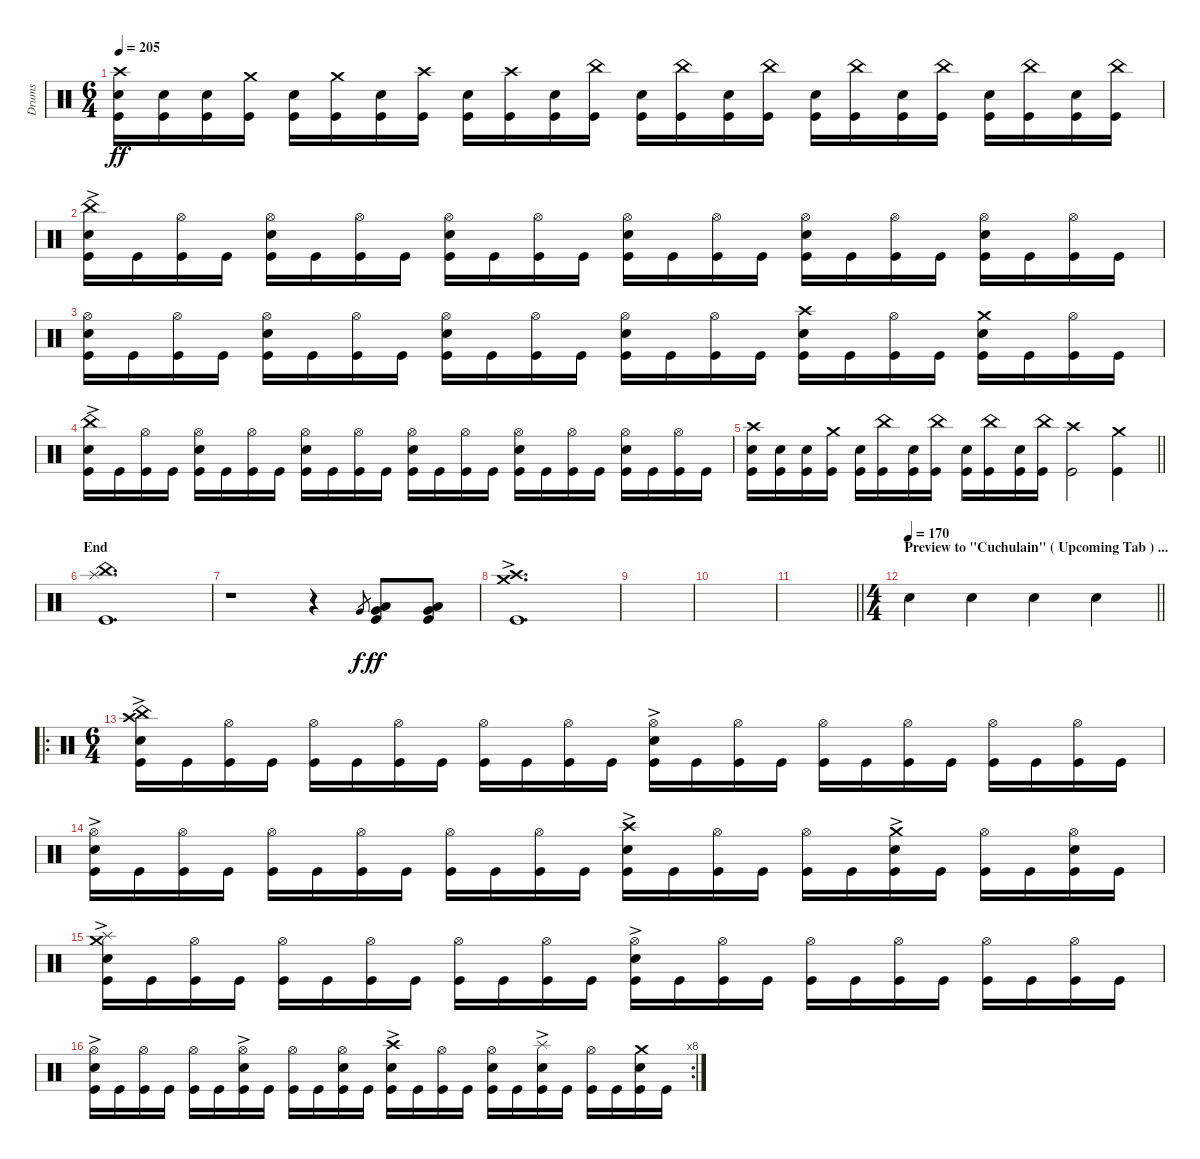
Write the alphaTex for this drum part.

\track ("Drums" "Drums") {instrument percussion}
\staff {score}
\articulation defaults
\ts (6 4)
\tempo 205
\clef neutral
\ks c
("Crash high (hit)" "Electric Snare (hit)" "Kick (hit)").16{dy ff} ("Electric Snare (hit)" "Kick (hit)").16 ("Electric Snare (hit)" "Kick (hit)").16 ("Crash medium (hit)" "Kick (hit)").16 ("Electric Snare (hit)" "Kick (hit)").16 ("Crash medium (hit)" "Kick (hit)").16 ("Electric Snare (hit)" "Kick (hit)").16 ("Crash high (hit)" "Kick (hit)").16 ("Electric Snare (hit)" "Kick (hit)").16 ("Crash high (hit)" "Kick (hit)").16 ("Electric Snare (hit)" "Kick (hit)").16 ("China (hit)" "Kick (hit)").16 ("Electric Snare (hit)" "Kick (hit)").16 ("China (hit)" "Kick (hit)").16 ("Electric Snare (hit)" "Kick (hit)").16 ("China (hit)" "Kick (hit)").16 ("Electric Snare (hit)" "Kick (hit)").16 ("China (hit)" "Kick (hit)").16 ("Electric Snare (hit)" "Kick (hit)").16 ("China (hit)" "Kick (hit)").16 ("Electric Snare (hit)" "Kick (hit)").16 ("China (hit)" "Kick (hit)").16 ("Electric Snare (hit)" "Kick (hit)").16 ("China (hit)" "Kick (hit)").16 |
("China (hit)"{ac} "Electric Snare (hit)" "Kick (hit)").16 "Kick (hit)".16 ("Hi-Hat (open)" "Kick (hit)").16 "Kick (hit)".16 ("Hi-Hat (open)" "Electric Snare (hit)" "Kick (hit)").16 "Kick (hit)".16 ("Hi-Hat (open)" "Kick (hit)").16 "Kick (hit)".16 ("Hi-Hat (open)" "Electric Snare (hit)" "Kick (hit)").16 "Kick (hit)".16 ("Hi-Hat (open)" "Kick (hit)").16 "Kick (hit)".16 ("Hi-Hat (open)" "Electric Snare (hit)" "Kick (hit)").16 "Kick (hit)".16 ("Hi-Hat (open)" "Kick (hit)").16 "Kick (hit)".16 ("Hi-Hat (open)" "Electric Snare (hit)" "Kick (hit)").16 "Kick (hit)".16 ("Hi-Hat (open)" "Kick (hit)").16 "Kick (hit)".16 ("Hi-Hat (open)" "Electric Snare (hit)" "Kick (hit)").16 "Kick (hit)".16 ("Hi-Hat (open)" "Kick (hit)").16 "Kick (hit)".16 |
("Hi-Hat (open)" "Electric Snare (hit)" "Kick (hit)").16 "Kick (hit)".16 ("Hi-Hat (open)" "Kick (hit)").16 "Kick (hit)".16 ("Hi-Hat (open)" "Electric Snare (hit)" "Kick (hit)").16 "Kick (hit)".16 ("Hi-Hat (open)" "Kick (hit)").16 "Kick (hit)".16 ("Hi-Hat (open)" "Electric Snare (hit)" "Kick (hit)").16 "Kick (hit)".16 ("Hi-Hat (open)" "Kick (hit)").16 "Kick (hit)".16 ("Hi-Hat (open)" "Electric Snare (hit)" "Kick (hit)").16 "Kick (hit)".16 ("Hi-Hat (open)" "Kick (hit)").16 "Kick (hit)".16 ("Crash high (hit)" "Electric Snare (hit)" "Kick (hit)").16 "Kick (hit)".16 ("Hi-Hat (open)" "Kick (hit)").16 "Kick (hit)".16 ("Crash medium (hit)" "Electric Snare (hit)" "Kick (hit)").16 "Kick (hit)".16 ("Hi-Hat (open)" "Kick (hit)").16 "Kick (hit)".16 |
("China (hit)"{ac} "Electric Snare (hit)" "Kick (hit)").16 "Kick (hit)".16 ("Hi-Hat (open)" "Kick (hit)").16 "Kick (hit)".16 ("Hi-Hat (open)" "Electric Snare (hit)" "Kick (hit)").16 "Kick (hit)".16 ("Hi-Hat (open)" "Kick (hit)").16 "Kick (hit)".16 ("Hi-Hat (open)" "Electric Snare (hit)" "Kick (hit)").16 "Kick (hit)".16 ("Hi-Hat (open)" "Kick (hit)").16 "Kick (hit)".16 ("Hi-Hat (open)" "Electric Snare (hit)" "Kick (hit)").16 "Kick (hit)".16 ("Hi-Hat (open)" "Kick (hit)").16 "Kick (hit)".16 ("Hi-Hat (open)" "Electric Snare (hit)" "Kick (hit)").16 "Kick (hit)".16 ("Hi-Hat (open)" "Kick (hit)").16 "Kick (hit)".16 ("Hi-Hat (open)" "Electric Snare (hit)" "Kick (hit)").16 "Kick (hit)".16 ("Hi-Hat (open)" "Kick (hit)").16 "Kick (hit)".16 |
\barLineRight lightlight
("Crash high (hit)" "Electric Snare (hit)" "Kick (hit)").16 ("Electric Snare (hit)" "Kick (hit)").16 ("Electric Snare (hit)" "Kick (hit)").16 ("Crash medium (hit)" "Kick (hit)").16 ("Electric Snare (hit)" "Kick (hit)").16 ("China (hit)" "Kick (hit)").16 ("Electric Snare (hit)" "Kick (hit)").16 ("China (hit)" "Kick (hit)").16 ("Electric Snare (hit)" "Kick (hit)").16 ("China (hit)" "Kick (hit)").16 ("Electric Snare (hit)" "Kick (hit)").16 ("China (hit)" "Kick (hit)").16 ("Crash high (hit)" "Kick (hit)").2 ("Crash medium (hit)" "Kick (hit)").4 |
\section ("" "End")
("China (hit)" "Splash (hit)" "Kick (hit)").1{d} |
r.1 r.4 "Very Low Tom (hit)".8{gr dy f} ("Low Tom (hit)" "Very Low Tom (hit)" "Kick (hit)").8{dy ff} ("Low Tom (hit)" "Very Low Tom (hit)" "Kick (hit)").8 |
("Crash high (hit)" "Crash medium (hit)"{ac} "Kick (hit)").1{d} |
|
|
\barLineRight lightlight
|
\ts (4 4)
\section ("" "Preview to \"Cuchulain\" ( Upcoming Tab ) ...")
\tempo 170
\barLineRight lightlight "Electric Snare (hit)".4 "Electric Snare (hit)".4 "Electric Snare (hit)".4 "Electric Snare (hit)".4
|
\ro
\ts (6 4)
("China (hit)"{ac} "Crash high (hit)" "Electric Snare (hit)"{ac} "Kick (hit)").16 "Kick (hit)".16 ("Hi-Hat (open)" "Kick (hit)").16 "Kick (hit)".16 ("Hi-Hat (open)" "Kick (hit)").16 "Kick (hit)".16 ("Hi-Hat (open)" "Kick (hit)").16 "Kick (hit)".16 ("Hi-Hat (open)" "Kick (hit)").16 "Kick (hit)".16 ("Hi-Hat (open)" "Kick (hit)").16 "Kick (hit)".16 ("Hi-Hat (open)" "Electric Snare (hit)"{ac} "Kick (hit)").16 "Kick (hit)".16 ("Hi-Hat (open)" "Kick (hit)").16 "Kick (hit)".16 ("Hi-Hat (open)" "Kick (hit)").16 "Kick (hit)".16 ("Hi-Hat (open)" "Kick (hit)").16 "Kick (hit)".16 ("Hi-Hat (open)" "Kick (hit)").16 "Kick (hit)".16 ("Hi-Hat (open)" "Kick (hit)").16 "Kick (hit)".16 |
("Hi-Hat (open)" "Electric Snare (hit)"{ac} "Kick (hit)").16 "Kick (hit)".16 ("Hi-Hat (open)" "Kick (hit)").16 "Kick (hit)".16 ("Hi-Hat (open)" "Kick (hit)").16 "Kick (hit)".16 ("Hi-Hat (open)" "Kick (hit)").16 "Kick (hit)".16 ("Hi-Hat (open)" "Kick (hit)").16 "Kick (hit)".16 ("Hi-Hat (open)" "Kick (hit)").16 "Kick (hit)".16 ("Crash high (hit)" "Electric Snare (hit)"{ac} "Kick (hit)").16 "Kick (hit)".16 ("Hi-Hat (open)" "Kick (hit)").16 "Kick (hit)".16 ("Hi-Hat (open)" "Kick (hit)").16 "Kick (hit)".16 ("Crash medium (hit)" "Electric Snare (hit)"{ac} "Kick (hit)").16 "Kick (hit)".16 ("Hi-Hat (open)" "Kick (hit)").16 "Kick (hit)".16 ("Hi-Hat (open)" "Electric Snare (hit)" "Kick (hit)").16 "Kick (hit)".16 |
("Splash (hit)"{ac} "Crash medium (hit)" "Electric Snare (hit)"{ac} "Kick (hit)").16 "Kick (hit)".16 ("Hi-Hat (open)" "Kick (hit)").16 "Kick (hit)".16 ("Hi-Hat (open)" "Kick (hit)").16 "Kick (hit)".16 ("Hi-Hat (open)" "Kick (hit)").16 "Kick (hit)".16 ("Hi-Hat (open)" "Kick (hit)").16 "Kick (hit)".16 ("Hi-Hat (open)" "Kick (hit)").16 "Kick (hit)".16 ("Hi-Hat (open)" "Electric Snare (hit)"{ac} "Kick (hit)").16 "Kick (hit)".16 ("Hi-Hat (open)" "Kick (hit)").16 "Kick (hit)".16 ("Hi-Hat (open)" "Kick (hit)").16 "Kick (hit)".16 ("Hi-Hat (open)" "Kick (hit)").16 "Kick (hit)".16 ("Hi-Hat (open)" "Kick (hit)").16 "Kick (hit)".16 ("Hi-Hat (open)" "Kick (hit)").16 "Kick (hit)".16 |
\rc 8
("Hi-Hat (open)" "Electric Snare (hit)"{ac} "Kick (hit)").16 "Kick (hit)".16 ("Hi-Hat (open)" "Kick (hit)").16 "Kick (hit)".16 ("Hi-Hat (open)" "Kick (hit)").16 "Kick (hit)".16 ("Hi-Hat (open)" "Electric Snare (hit)"{ac} "Kick (hit)").16 "Kick (hit)".16 ("Hi-Hat (open)" "Kick (hit)").16 "Kick (hit)".16 ("Hi-Hat (open)" "Electric Snare (hit)" "Kick (hit)").16 "Kick (hit)".16 ("Crash high (hit)" "Electric Snare (hit)"{ac} "Kick (hit)").16 "Kick (hit)".16 ("Hi-Hat (open)" "Kick (hit)").16 "Kick (hit)".16 ("Hi-Hat (open)" "Electric Snare (hit)" "Kick (hit)").16 "Kick (hit)".16 ("Splash (hit)" "Electric Snare (hit)"{ac} "Kick (hit)").16 "Kick (hit)".16 ("Hi-Hat (open)" "Kick (hit)").16 "Kick (hit)".16 ("Crash medium (hit)" "Electric Snare (hit)" "Kick (hit)").16 "Kick (hit)".16
